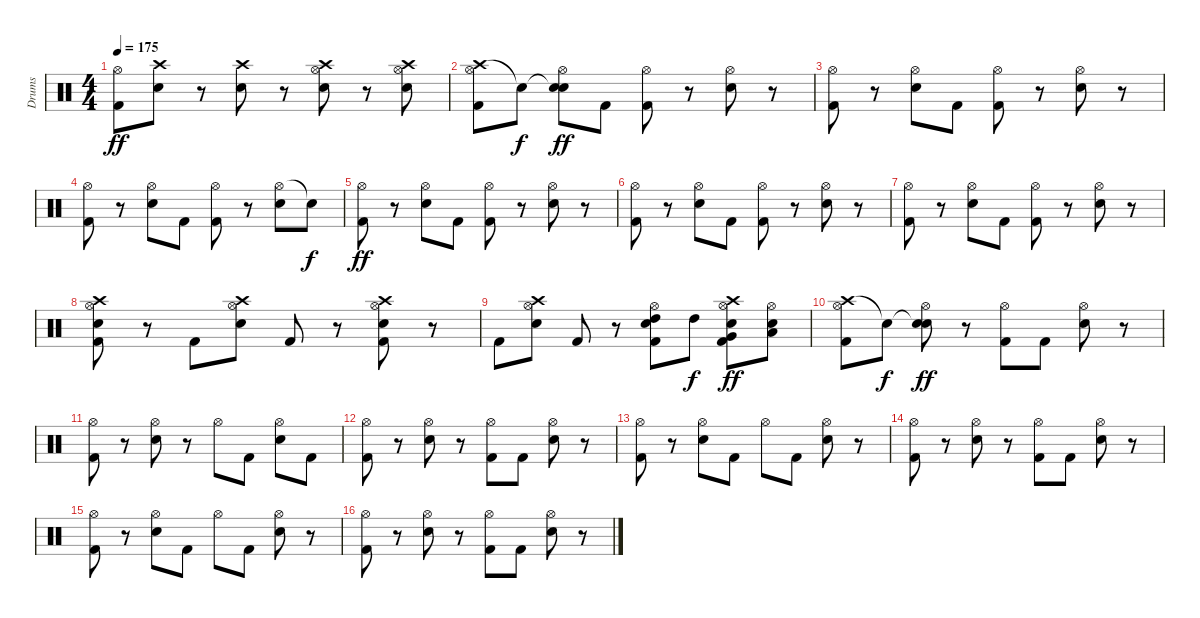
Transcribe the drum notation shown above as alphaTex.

\track ("Drums" "Drums") {instrument percussion}
\staff {score}
\articulation defaults
\ts (4 4)
\tempo 175
\clef neutral
\ks c
("Hi-Hat (open)" "Kick (hit) 2").8{dy ff} ("Crash high (hit)" "Electric Snare (hit)").8 r.8 ("Crash high (hit)" "Electric Snare (hit)").8 r.8 ("Crash high (hit)" "Hi-Hat (open)" "Electric Snare (hit)").8 r.8 ("Crash high (hit)" "Hi-Hat (open)" "Electric Snare (hit)").8 |
("Crash high (hit)" "Hi-Hat (open)" "Kick (hit) 2").8 "Snare (hit)"{t}.8{dy f} ("Snare (hit)"{t} "Hi-Hat (open)" "Electric Snare (hit)").8{dy ff} "Kick (hit) 2".8 ("Hi-Hat (open)" "Kick (hit) 2").8 r.8 ("Hi-Hat (open)" "Electric Snare (hit)").8 r.8 |
("Hi-Hat (open)" "Kick (hit) 2").8 r.8 ("Hi-Hat (open)" "Electric Snare (hit)").8 "Kick (hit) 2".8 ("Hi-Hat (open)" "Kick (hit) 2").8 r.8 ("Hi-Hat (open)" "Electric Snare (hit)").8 r.8 |
("Hi-Hat (open)" "Kick (hit) 2").8 r.8 ("Hi-Hat (open)" "Electric Snare (hit)").8 "Kick (hit) 2".8 ("Hi-Hat (open)" "Kick (hit) 2").8 r.8 ("Hi-Hat (open)" "Electric Snare (hit)").8 "Snare (hit)"{t}.8{dy f} |
("Hi-Hat (open)" "Kick (hit) 2").8{dy ff} r.8 ("Hi-Hat (open)" "Electric Snare (hit)").8 "Kick (hit) 2".8 ("Hi-Hat (open)" "Kick (hit) 2").8 r.8 ("Hi-Hat (open)" "Electric Snare (hit)").8 r.8 |
("Hi-Hat (open)" "Kick (hit) 2").8 r.8 ("Hi-Hat (open)" "Electric Snare (hit)").8 "Kick (hit) 2".8 ("Hi-Hat (open)" "Kick (hit) 2").8 r.8 ("Hi-Hat (open)" "Electric Snare (hit)").8 r.8 |
("Hi-Hat (open)" "Kick (hit) 2").8 r.8 ("Hi-Hat (open)" "Electric Snare (hit)").8 "Kick (hit) 2".8 ("Hi-Hat (open)" "Kick (hit) 2").8 r.8 ("Hi-Hat (open)" "Electric Snare (hit)").8 r.8 |
("Crash high (hit)" "Hi-Hat (open)" "Electric Snare (hit)" "Kick (hit) 2").8 r.8 "Kick (hit) 2".8 ("Crash high (hit)" "Hi-Hat (open)" "Electric Snare (hit)").8 "Kick (hit) 2".8 r.8 ("Crash high (hit)" "Hi-Hat (open)" "Electric Snare (hit)" "Kick (hit) 2").8 r.8 |
"Kick (hit) 2".8 ("Crash high (hit)" "Hi-Hat (open)" "Electric Snare (hit)").8 "Kick (hit) 2".8 r.8 ("Hi-Hat (open)" "High Tom (hit)" "Electric Snare (hit)" "Kick (hit) 2").8 "High Tom (hit)".8{dy f} ("Crash high (hit)" "Hi-Hat (open)" "Very Low Tom (hit)" "Electric Snare (hit)" "Kick (hit) 2").8{dy ff} ("Hi-Hat (open)" "Low Floor Tom (hit)" "Electric Snare (hit)").8 |
("Crash high (hit)" "Hi-Hat (open)" "Kick (hit) 2").8 "Snare (hit)"{t}.8{dy f} ("Snare (hit)"{t} "Hi-Hat (open)" "Electric Snare (hit)").8{dy ff} r.8 ("Hi-Hat (open)" "Kick (hit) 2").8 "Kick (hit) 2".8 ("Hi-Hat (open)" "Electric Snare (hit)").8 r.8 |
("Hi-Hat (open)" "Kick (hit) 2").8 r.8 ("Hi-Hat (open)" "Electric Snare (hit)").8 r.8 "Hi-Hat (open)".8 "Kick (hit) 2".8 ("Hi-Hat (open)" "Electric Snare (hit)").8 "Kick (hit) 2".8 |
("Hi-Hat (open)" "Kick (hit) 2").8 r.8 ("Hi-Hat (open)" "Electric Snare (hit)").8 r.8 ("Hi-Hat (open)" "Kick (hit) 2").8 "Kick (hit) 2".8 ("Hi-Hat (open)" "Electric Snare (hit)").8 r.8 |
("Hi-Hat (open)" "Kick (hit) 2").8 r.8 ("Hi-Hat (open)" "Electric Snare (hit)").8 "Kick (hit) 2".8 "Hi-Hat (open)".8 "Kick (hit) 2".8 ("Hi-Hat (open)" "Electric Snare (hit)").8 r.8 |
("Hi-Hat (open)" "Kick (hit) 2").8 r.8 ("Hi-Hat (open)" "Electric Snare (hit)").8 r.8 ("Hi-Hat (open)" "Kick (hit) 2").8 "Kick (hit) 2".8 ("Hi-Hat (open)" "Electric Snare (hit)").8 r.8 |
("Hi-Hat (open)" "Kick (hit) 2").8 r.8 ("Hi-Hat (open)" "Electric Snare (hit)").8 "Kick (hit) 2".8 "Hi-Hat (open)".8 "Kick (hit) 2".8 ("Hi-Hat (open)" "Electric Snare (hit)").8 r.8 |
("Hi-Hat (open)" "Kick (hit) 2").8 r.8 ("Hi-Hat (open)" "Electric Snare (hit)").8 r.8 ("Hi-Hat (open)" "Kick (hit) 2").8 "Kick (hit) 2".8 ("Hi-Hat (open)" "Electric Snare (hit)").8 r.8
